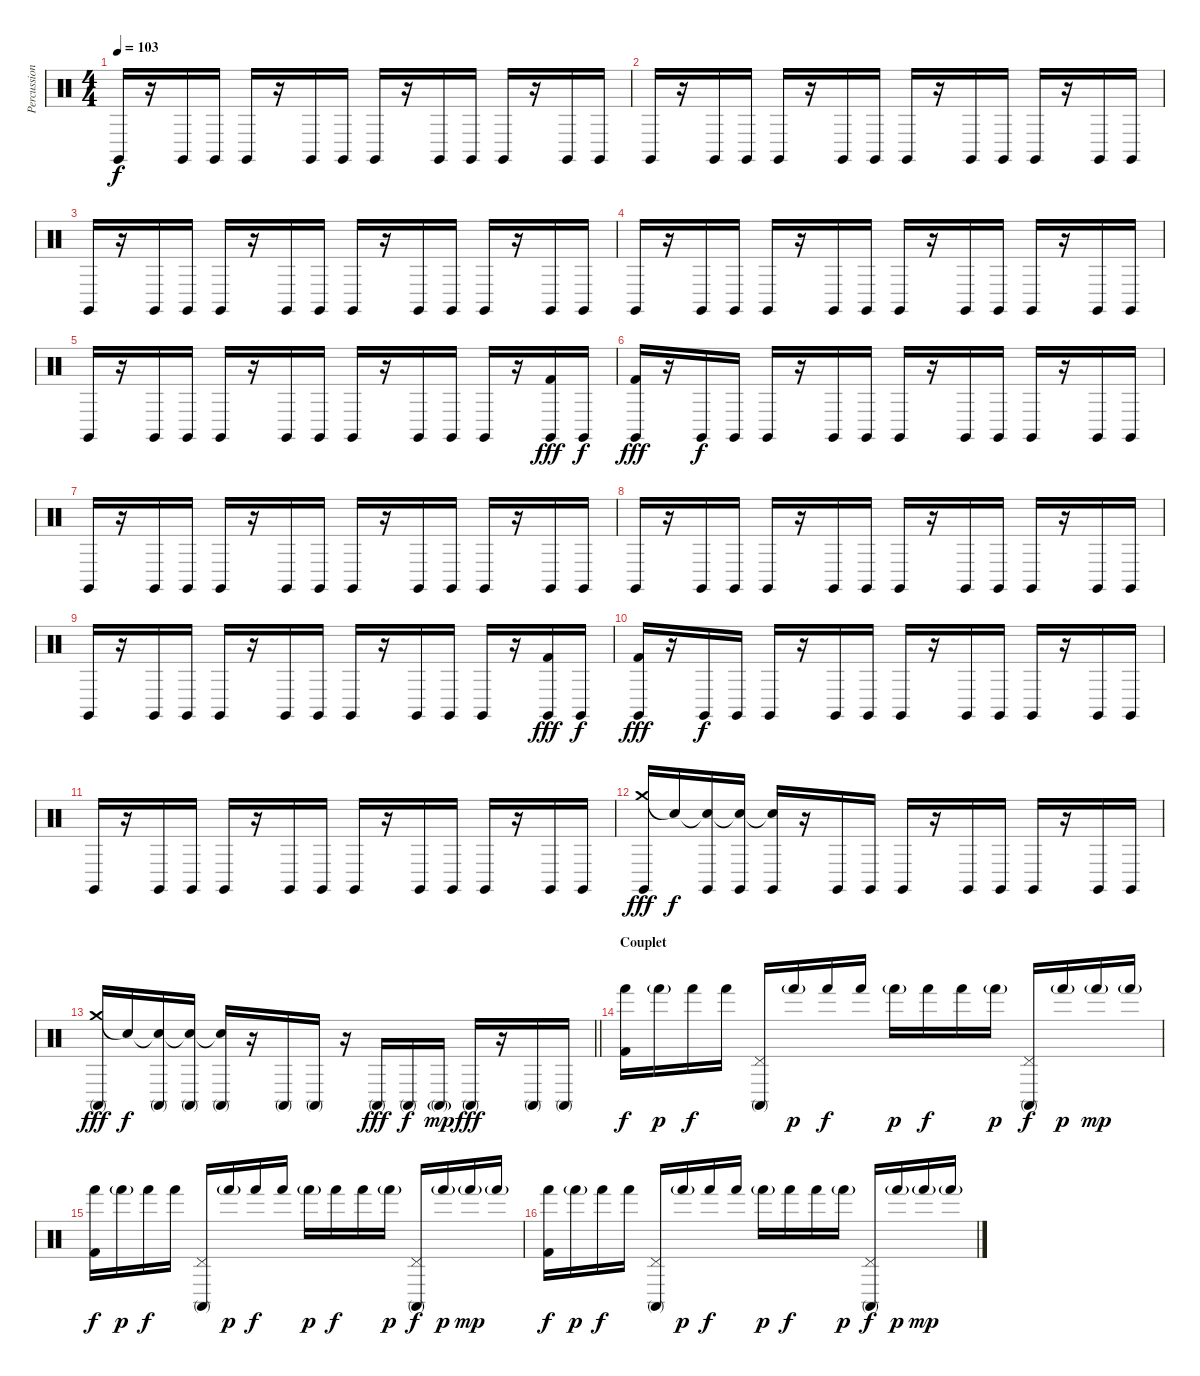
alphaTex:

\track ("Percussions" "Percussion") {instrument percussion}
\staff {score}
\articulation defaults
\ts (4 4)
\tempo 103
\clef neutral
\ks c "Claves (hit)".16{dy f}
r.16 "Claves (hit)".16 "Claves (hit)".16 "Claves (hit)".16 r.16 "Claves (hit)".16 "Claves (hit)".16 "Claves (hit)".16 r.16 "Claves (hit)".16 "Claves (hit)".16 "Claves (hit)".16 r.16 "Claves (hit)".16 "Claves (hit)".16 |
"Claves (hit)".16 r.16 "Claves (hit)".16 "Claves (hit)".16 "Claves (hit)".16 r.16 "Claves (hit)".16 "Claves (hit)".16 "Claves (hit)".16 r.16 "Claves (hit)".16 "Claves (hit)".16 "Claves (hit)".16 r.16 "Claves (hit)".16 "Claves (hit)".16 |
"Claves (hit)".16 r.16 "Claves (hit)".16 "Claves (hit)".16 "Claves (hit)".16 r.16 "Claves (hit)".16 "Claves (hit)".16 "Claves (hit)".16 r.16 "Claves (hit)".16 "Claves (hit)".16 "Claves (hit)".16 r.16 "Claves (hit)".16 "Claves (hit)".16 |
"Claves (hit)".16 r.16 "Claves (hit)".16 "Claves (hit)".16 "Claves (hit)".16 r.16 "Claves (hit)".16 "Claves (hit)".16 "Claves (hit)".16 r.16 "Claves (hit)".16 "Claves (hit)".16 "Claves (hit)".16 r.16 "Claves (hit)".16 "Claves (hit)".16 |
"Claves (hit)".16 r.16 "Claves (hit)".16 "Claves (hit)".16 "Claves (hit)".16 r.16 "Claves (hit)".16 "Claves (hit)".16 "Claves (hit)".16 r.16 "Claves (hit)".16 "Claves (hit)".16 "Claves (hit)".16 r.16 ("Claves (hit)" "Kick (hit) 2").16{dy fff} "Claves (hit)".16{dy f} |
("Claves (hit)" "Kick (hit) 2").16{dy fff} r.16 "Claves (hit)".16{dy f} "Claves (hit)".16 "Claves (hit)".16 r.16 "Claves (hit)".16 "Claves (hit)".16 "Claves (hit)".16 r.16 "Claves (hit)".16 "Claves (hit)".16 "Claves (hit)".16 r.16 "Claves (hit)".16 "Claves (hit)".16 |
"Claves (hit)".16 r.16 "Claves (hit)".16 "Claves (hit)".16 "Claves (hit)".16 r.16 "Claves (hit)".16 "Claves (hit)".16 "Claves (hit)".16 r.16 "Claves (hit)".16 "Claves (hit)".16 "Claves (hit)".16 r.16 "Claves (hit)".16 "Claves (hit)".16 |
"Claves (hit)".16 r.16 "Claves (hit)".16 "Claves (hit)".16 "Claves (hit)".16 r.16 "Claves (hit)".16 "Claves (hit)".16 "Claves (hit)".16 r.16 "Claves (hit)".16 "Claves (hit)".16 "Claves (hit)".16 r.16 "Claves (hit)".16 "Claves (hit)".16 |
"Claves (hit)".16 r.16 "Claves (hit)".16 "Claves (hit)".16 "Claves (hit)".16 r.16 "Claves (hit)".16 "Claves (hit)".16 "Claves (hit)".16 r.16 "Claves (hit)".16 "Claves (hit)".16 "Claves (hit)".16 r.16 ("Claves (hit)" "Kick (hit) 2").16{dy fff} "Claves (hit)".16{dy f} |
("Claves (hit)" "Kick (hit) 2").16{dy fff} r.16 "Claves (hit)".16{dy f} "Claves (hit)".16 "Claves (hit)".16 r.16 "Claves (hit)".16 "Claves (hit)".16 "Claves (hit)".16 r.16 "Claves (hit)".16 "Claves (hit)".16 "Claves (hit)".16 r.16 "Claves (hit)".16 "Claves (hit)".16 |
"Claves (hit)".16 r.16 "Claves (hit)".16 "Claves (hit)".16 "Claves (hit)".16 r.16 "Claves (hit)".16 "Claves (hit)".16 "Claves (hit)".16 r.16 "Claves (hit)".16 "Claves (hit)".16 "Claves (hit)".16 r.16 "Claves (hit)".16 "Claves (hit)".16 |
("Crash medium (hit)" "Claves (hit)").16{dy fff} "Snare (hit)"{t}.16{dy f} ("Snare (hit)"{t} "Claves (hit)").16 ("Snare (hit)"{t} "Claves (hit)").16 ("Snare (hit)"{t} "Claves (hit)").16 r.16 "Claves (hit)".16 "Claves (hit)".16 "Claves (hit)".16 r.16 "Claves (hit)".16 "Claves (hit)".16 "Claves (hit)".16 r.16 "Claves (hit)".16 "Claves (hit)".16 |
\barLineRight lightlight
("Crash medium (hit)" "Conga high (mute)").16{dy fff} "Snare (hit)"{t}.16{dy f} ("Snare (hit)"{t} "Conga high (mute)").16 ("Snare (hit)"{t} "Conga high (mute)").16 ("Snare (hit)"{t} "Conga high (mute)").16 r.16 "Conga high (mute)".16 "Conga high (mute)".16 r.16 "Conga high (mute)".16{dy fff} "Conga high (mute)".16{dy f} "Conga high (mute)"{g}.16{dy mp} "Conga high (mute)".16{dy fff} r.16 "Conga high (mute)".16 "Conga high (mute)".16 |
\section ("" "Couplet")
("Hand (hit)" "Kick (hit) 2").16{dy f} "Hand (hit)"{g}.16{dy p} "Hand (hit)".16{dy f} "Hand (hit)".16 ("Pedal Hi-Hat (hit)" "Conga high (mute)").16 "Hand (hit)"{g}.16{dy p} "Hand (hit)".16{dy f} "Hand (hit)".16 "Hand (hit)"{g}.16{dy p} "Hand (hit)".16{dy f} "Hand (hit)".16 "Hand (hit)"{g}.16{dy p} ("Pedal Hi-Hat (hit)" "Conga high (mute)").16{dy f} "Hand (hit)"{g}.16{dy p} "Hand (hit)"{g}.16{dy mp} "Hand (hit)"{g}.16 |
("Hand (hit)" "Kick (hit) 2").16{dy f} "Hand (hit)"{g}.16{dy p} "Hand (hit)".16{dy f} "Hand (hit)".16 ("Pedal Hi-Hat (hit)" "Conga high (mute)").16 "Hand (hit)"{g}.16{dy p} "Hand (hit)".16{dy f} "Hand (hit)".16 "Hand (hit)"{g}.16{dy p} "Hand (hit)".16{dy f} "Hand (hit)".16 "Hand (hit)"{g}.16{dy p} ("Pedal Hi-Hat (hit)" "Conga high (mute)").16{dy f} "Hand (hit)"{g}.16{dy p} "Hand (hit)"{g}.16{dy mp} "Hand (hit)"{g}.16 |
("Hand (hit)" "Kick (hit) 2").16{dy f} "Hand (hit)"{g}.16{dy p} "Hand (hit)".16{dy f} "Hand (hit)".16 ("Pedal Hi-Hat (hit)" "Conga high (mute)").16 "Hand (hit)"{g}.16{dy p} "Hand (hit)".16{dy f} "Hand (hit)".16 "Hand (hit)"{g}.16{dy p} "Hand (hit)".16{dy f} "Hand (hit)".16 "Hand (hit)"{g}.16{dy p} ("Pedal Hi-Hat (hit)" "Conga high (mute)").16{dy f} "Hand (hit)"{g}.16{dy p} "Hand (hit)"{g}.16{dy mp} "Hand (hit)"{g}.16
